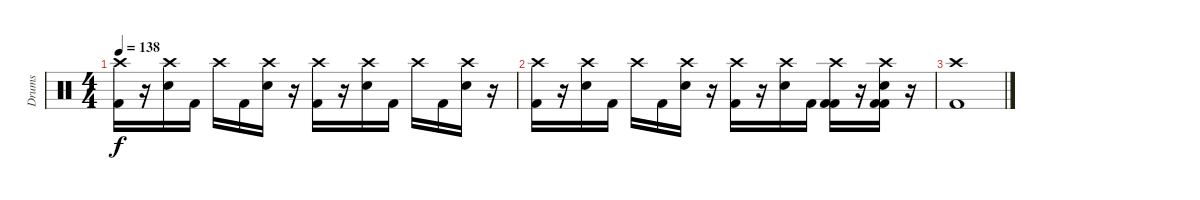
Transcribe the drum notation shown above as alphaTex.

\track ("Drums" "Drums") {instrument percussion}
\staff {score}
\articulation defaults
\ts (4 4)
\tempo 138
\clef neutral
\ks c
("Crash high (hit)" "Kick (hit) 2").16{dy f} r.16 ("Crash high (hit)" "Snare (hit) 2").16 "Kick (hit) 2".16 "Crash high (hit)".16 "Kick (hit) 2".16 ("Crash high (hit)" "Snare (hit) 2").16 r.16 ("Crash high (hit)" "Kick (hit) 2").16 r.16 ("Crash high (hit)" "Snare (hit) 2").16 "Kick (hit) 2".16 "Crash high (hit)".16 "Kick (hit) 2".16 ("Crash high (hit)" "Snare (hit) 2").16 r.16 |
("Crash high (hit)" "Kick (hit) 2").16 r.16 ("Crash high (hit)" "Snare (hit) 2").16 "Kick (hit) 2".16 "Crash high (hit)".16 "Kick (hit) 2".16 ("Crash high (hit)" "Snare (hit) 2").16 r.16 ("Crash high (hit)" "Kick (hit) 2").16 r.16 ("Crash high (hit)" "Snare (hit) 2").16 "Kick (hit) 2".16 ("Kick (hit) 2" "Crash high (hit)" "Kick (hit) 2").16 r.16 ("Kick (hit) 2" "Kick (hit) 2" "Crash high (hit)" "Snare (hit) 2").16 r.16 |
("Crash high (hit)" "Kick (hit) 2").1
